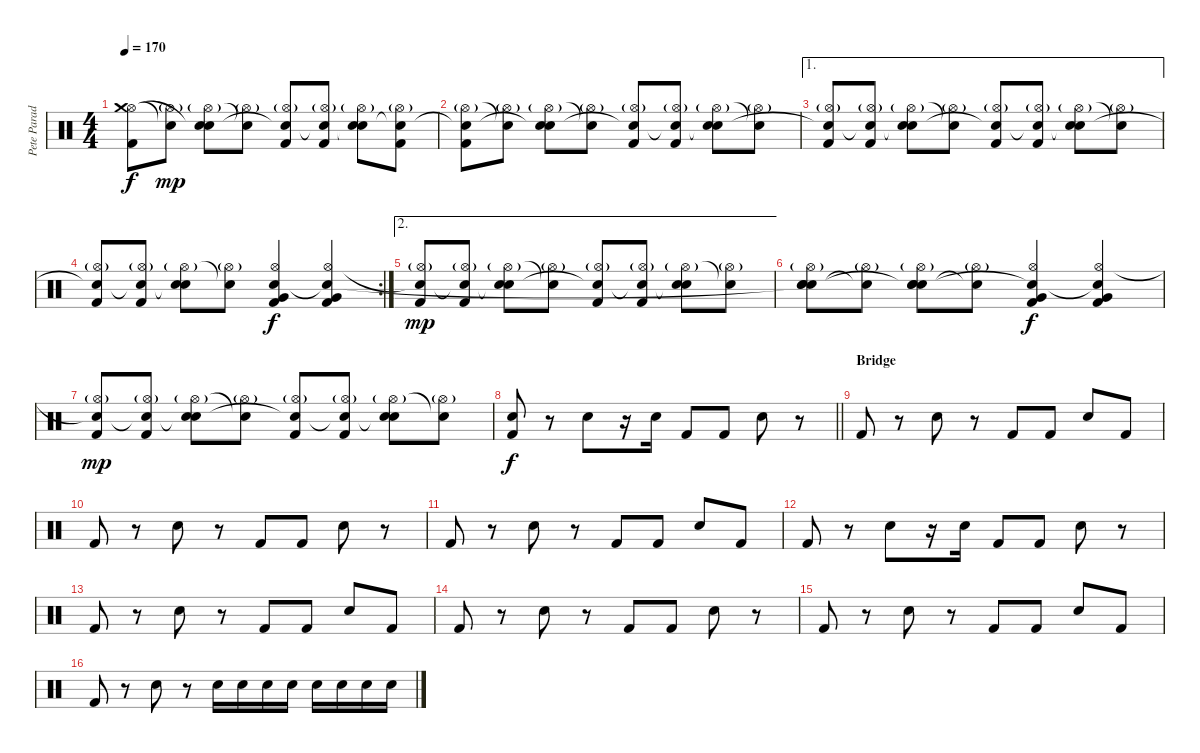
\track ("Pete Parada" "Pete Parad") {instrument percussion}
\staff {score}
\articulation defaults
\ts (4 4)
\tempo 170
\clef neutral
\ks c
("Kick (hit) 2" "Hi-Hat (open)" "Crash medium (hit)").8{dy f} ("Hi-Hat (open)"{g} "Snare (hit)"{t}).8{dy mp} ("Snare (hit) 2" "Hi-Hat (open)"{g} "Snare (hit)"{t}).8 ("Hi-Hat (open)"{g} "Snare (hit)"{t}).8 ("Kick (hit) 2" "Hi-Hat (open)"{g} "Snare (hit)"{t}).8 ("Kick (hit) 2" "Hi-Hat (open)"{g} "Snare (hit)"{t}).8 ("Snare (hit) 2" "Hi-Hat (open)"{g} "Snare (hit)"{t}).8 ("Kick (hit) 2" "Hi-Hat (open)"{g} "Snare (hit)"{t}).8 |
("Kick (hit) 2" "Hi-Hat (open)"{g} "Snare (hit)"{t}).8 ("Hi-Hat (open)"{g} "Snare (hit)"{t}).8 ("Snare (hit) 2" "Hi-Hat (open)"{g} "Snare (hit)"{t}).8 ("Hi-Hat (open)"{g} "Snare (hit)"{t}).8 ("Kick (hit) 2" "Hi-Hat (open)"{g} "Snare (hit)"{t}).8 ("Kick (hit) 2" "Hi-Hat (open)"{g} "Snare (hit)"{t}).8 ("Snare (hit) 2" "Hi-Hat (open)"{g} "Snare (hit)"{t}).8 ("Hi-Hat (open)"{g} "Snare (hit)"{t}).8 |
\ae 1
("Kick (hit) 2" "Hi-Hat (open)"{g} "Snare (hit)"{t}).8 ("Kick (hit) 2" "Hi-Hat (open)"{g} "Snare (hit)"{t}).8 ("Snare (hit) 2" "Hi-Hat (open)"{g} "Snare (hit)"{t}).8 ("Hi-Hat (open)"{g} "Snare (hit)"{t}).8 ("Kick (hit) 2" "Hi-Hat (open)"{g} "Snare (hit)"{t}).8 ("Kick (hit) 2" "Hi-Hat (open)"{g} "Snare (hit)"{t}).8 ("Snare (hit) 2" "Hi-Hat (open)"{g} "Snare (hit)"{t}).8 ("Hi-Hat (open)"{g} "Snare (hit)"{t}).8 |
\rc 2
("Kick (hit) 2" "Hi-Hat (open)"{g} "Snare (hit)"{t}).8 ("Kick (hit) 2" "Hi-Hat (open)"{g} "Snare (hit)"{t}).8 ("Snare (hit) 2" "Hi-Hat (open)"{g} "Snare (hit)"{t}).8 ("Hi-Hat (open)"{g} "Snare (hit)"{t}).8 ("Kick (hit) 2" "Very Low Tom (hit)" "Hi-Hat (open)" "Snare (hit)").4{dy f} ("Kick (hit) 2" "Very Low Tom (hit)" "Hi-Hat (open)" "Snare (hit)"{t}).4 |
\ae 2
("Kick (hit) 2" "Hi-Hat (open)"{g} "Snare (hit)"{t}).8{dy mp} ("Kick (hit) 2" "Hi-Hat (open)"{g} "Snare (hit)"{t}).8 ("Snare (hit) 2" "Hi-Hat (open)"{g} "Snare (hit)"{t}).8 ("Hi-Hat (open)"{g} "Snare (hit)"{t}).8 ("Kick (hit) 2" "Hi-Hat (open)"{g} "Snare (hit)"{t}).8 ("Kick (hit) 2" "Hi-Hat (open)"{g} "Snare (hit)"{t}).8 ("Snare (hit) 2" "Hi-Hat (open)"{g} "Snare (hit)"{t}).8 ("Hi-Hat (open)"{g} "Snare (hit)"{t}).8 |
("Snare (hit) 2" "Snare (hit) 2" "Hi-Hat (open)"{g} "Snare (hit)"{t}).8 ("Hi-Hat (open)"{g} "Snare (hit)"{t}).8 ("Snare (hit) 2" "Snare (hit) 2" "Hi-Hat (open)"{g} "Snare (hit)"{t}).8 ("Hi-Hat (open)"{g} "Snare (hit)"{t}).8 ("Kick (hit) 2" "Very Low Tom (hit)" "Hi-Hat (open)" "Snare (hit)"{t}).4{dy f} ("Kick (hit) 2" "Very Low Tom (hit)" "Hi-Hat (open)" "Snare (hit)"{t}).4 |
("Kick (hit) 2" "Hi-Hat (open)"{g} "Snare (hit)"{t}).8{dy mp} ("Kick (hit) 2" "Hi-Hat (open)"{g} "Snare (hit)"{t}).8 ("Snare (hit) 2" "Hi-Hat (open)"{g} "Snare (hit)"{t}).8 ("Hi-Hat (open)"{g} "Snare (hit)"{t}).8 ("Kick (hit) 2" "Hi-Hat (open)"{g} "Snare (hit)"{t}).8 ("Kick (hit) 2" "Hi-Hat (open)"{g} "Snare (hit)"{t}).8 ("Snare (hit) 2" "Hi-Hat (open)"{g} "Snare (hit)"{t}).8 ("Hi-Hat (open)"{g} "Snare (hit)"{t}).8 |
\barLineRight lightlight
("Snare (hit) 2" "Kick (hit) 2").8{dy f} r.8 "Snare (hit) 2".8 r.16 "Snare (hit) 2".16 "Kick (hit) 2".8 "Kick (hit) 2".8 "Snare (hit) 2".8 r.8 |
\section ("" "Bridge")
"Kick (hit) 2".8 r.8 "Snare (hit) 2".8 r.8 "Kick (hit) 2".8 "Kick (hit) 2".8 "Snare (hit) 2".8 "Kick (hit) 2".8 |
"Kick (hit) 2".8 r.8 "Snare (hit) 2".8 r.8 "Kick (hit) 2".8 "Kick (hit) 2".8 "Snare (hit) 2".8 r.8 |
"Kick (hit) 2".8 r.8 "Snare (hit) 2".8 r.8 "Kick (hit) 2".8 "Kick (hit) 2".8 "Snare (hit) 2".8 "Kick (hit) 2".8 |
"Kick (hit) 2".8 r.8 "Snare (hit) 2".8 r.16 "Snare (hit) 2".16 "Kick (hit) 2".8 "Kick (hit) 2".8 "Snare (hit) 2".8 r.8 |
"Kick (hit) 2".8 r.8 "Snare (hit) 2".8 r.8 "Kick (hit) 2".8 "Kick (hit) 2".8 "Snare (hit) 2".8 "Kick (hit) 2".8 |
"Kick (hit) 2".8 r.8 "Snare (hit) 2".8 r.8 "Kick (hit) 2".8 "Kick (hit) 2".8 "Snare (hit) 2".8 r.8 |
"Kick (hit) 2".8 r.8 "Snare (hit) 2".8 r.8 "Kick (hit) 2".8 "Kick (hit) 2".8 "Snare (hit) 2".8 "Kick (hit) 2".8 |
"Kick (hit) 2".8 r.8 "Snare (hit) 2".8 r.8 "Snare (hit) 2".16 "Snare (hit) 2".16 "Snare (hit) 2".16 "Snare (hit) 2".16 "Snare (hit) 2".16 "Snare (hit) 2".16 "Snare (hit) 2".16 "Snare (hit) 2".16
